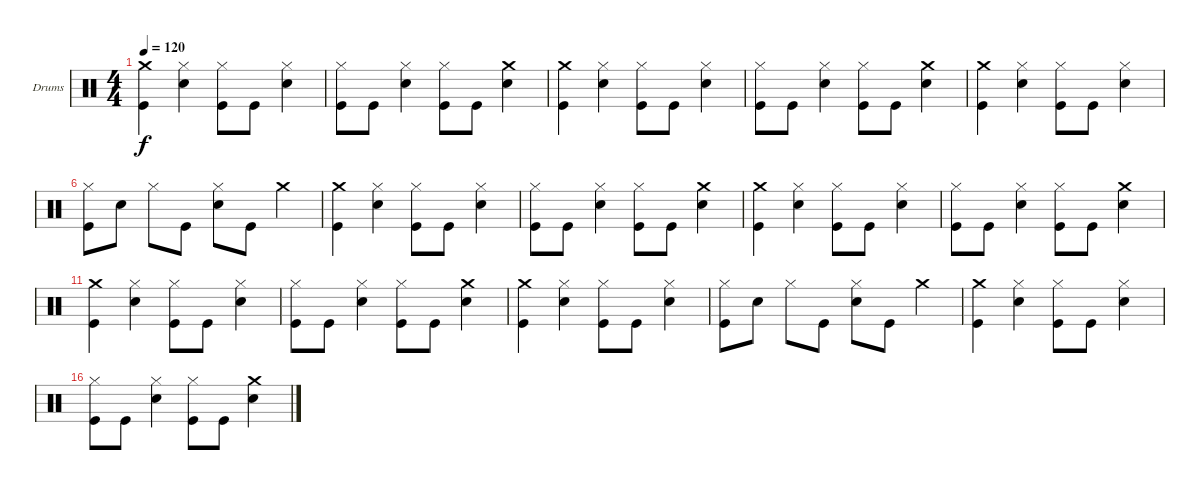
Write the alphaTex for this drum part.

\bracketExtendMode nobrackets
\firstSystemTrackNameOrientation horizontal
\otherSystemsTrackNameOrientation horizontal
\defaultBarNumberDisplay FirstOfSystem
\track ("Drumkit" "Drums") {instrument percussion}
\staff {score}
\articulation defaults
\ts (4 4)
\tempo 120
\clef neutral
\scale
0.240741
\ks c
("Crash medium (hit)" "Kick (hit)").4{dy f} ("Hi-Hat (closed)" "Snare (hit) 2").4 ("Hi-Hat (closed)" "Kick (hit)").8 "Kick (hit)".8 ("Hi-Hat (closed)" "Snare (hit) 2").4 |
\scale
0.259259 ("Hi-Hat (closed)" "Kick (hit)").8 "Kick (hit)".8 ("Hi-Hat (closed)" "Snare (hit) 2").4 ("Hi-Hat (closed)" "Kick (hit)").8 "Kick (hit)".8 ("Crash medium (hit)" "Snare (hit) 2").4 |
\scale
0.236364 ("Crash medium (hit)" "Kick (hit)").4 ("Hi-Hat (closed)" "Snare (hit) 2").4 ("Hi-Hat (closed)" "Kick (hit)").8 "Kick (hit)".8 ("Hi-Hat (closed)" "Snare (hit) 2").4 |
\scale
0.254545 ("Hi-Hat (closed)" "Kick (hit)").8 "Kick (hit)".8 ("Hi-Hat (closed)" "Snare (hit) 2").4 ("Hi-Hat (closed)" "Kick (hit)").8 "Kick (hit)".8 ("Crash medium (hit)" "Snare (hit) 2").4 |
\scale
0.236364 ("Crash medium (hit)" "Kick (hit)").4 ("Hi-Hat (closed)" "Snare (hit) 2").4 ("Hi-Hat (closed)" "Kick (hit)").8 "Kick (hit)".8 ("Hi-Hat (closed)" "Snare (hit) 2").4 |
\scale
0.272727 ("Hi-Hat (closed)" "Kick (hit)").8 "Snare (hit) 2".8 "Hi-Hat (closed)".8 "Kick (hit)".8 ("Hi-Hat (closed)" "Snare (hit) 2").8 "Kick (hit)".8 "Crash medium (hit)".4 |
\scale
0.240741 ("Crash medium (hit)" "Kick (hit)").4 ("Hi-Hat (closed)" "Snare (hit) 2").4 ("Hi-Hat (closed)" "Kick (hit)").8 "Kick (hit)".8 ("Hi-Hat (closed)" "Snare (hit) 2").4 |
\scale
0.259259 ("Hi-Hat (closed)" "Kick (hit)").8 "Kick (hit)".8 ("Hi-Hat (closed)" "Snare (hit) 2").4 ("Hi-Hat (closed)" "Kick (hit)").8 "Kick (hit)".8 ("Crash medium (hit)" "Snare (hit) 2").4 |
\scale
0.240741 ("Crash medium (hit)" "Kick (hit)").4 ("Hi-Hat (closed)" "Snare (hit) 2").4 ("Hi-Hat (closed)" "Kick (hit)").8 "Kick (hit)".8 ("Hi-Hat (closed)" "Snare (hit) 2").4 |
\scale
0.259259 ("Hi-Hat (closed)" "Kick (hit)").8 "Kick (hit)".8 ("Hi-Hat (closed)" "Snare (hit) 2").4 ("Hi-Hat (closed)" "Kick (hit)").8 "Kick (hit)".8 ("Crash medium (hit)" "Snare (hit) 2").4 |
\scale
0.236364 ("Crash medium (hit)" "Kick (hit)").4 ("Hi-Hat (closed)" "Snare (hit) 2").4 ("Hi-Hat (closed)" "Kick (hit)").8 "Kick (hit)".8 ("Hi-Hat (closed)" "Snare (hit) 2").4 |
\scale
0.254545 ("Hi-Hat (closed)" "Kick (hit)").8 "Kick (hit)".8 ("Hi-Hat (closed)" "Snare (hit) 2").4 ("Hi-Hat (closed)" "Kick (hit)").8 "Kick (hit)".8 ("Crash medium (hit)" "Snare (hit) 2").4 |
\scale
0.236364 ("Crash medium (hit)" "Kick (hit)").4 ("Hi-Hat (closed)" "Snare (hit) 2").4 ("Hi-Hat (closed)" "Kick (hit)").8 "Kick (hit)".8 ("Hi-Hat (closed)" "Snare (hit) 2").4 |
\scale
0.272727 ("Hi-Hat (closed)" "Kick (hit)").8 "Snare (hit) 2".8 "Hi-Hat (closed)".8 "Kick (hit)".8 ("Hi-Hat (closed)" "Snare (hit) 2").8 "Kick (hit)".8 "Crash medium (hit)".4 |
\scale
0.240741 ("Crash medium (hit)" "Kick (hit)").4 ("Hi-Hat (closed)" "Snare (hit) 2").4 ("Hi-Hat (closed)" "Kick (hit)").8 "Kick (hit)".8 ("Hi-Hat (closed)" "Snare (hit) 2").4 |
\scale
0.259259 ("Hi-Hat (closed)" "Kick (hit)").8 "Kick (hit)".8 ("Hi-Hat (closed)" "Snare (hit) 2").4 ("Hi-Hat (closed)" "Kick (hit)").8 "Kick (hit)".8 ("Crash medium (hit)" "Snare (hit) 2").4
